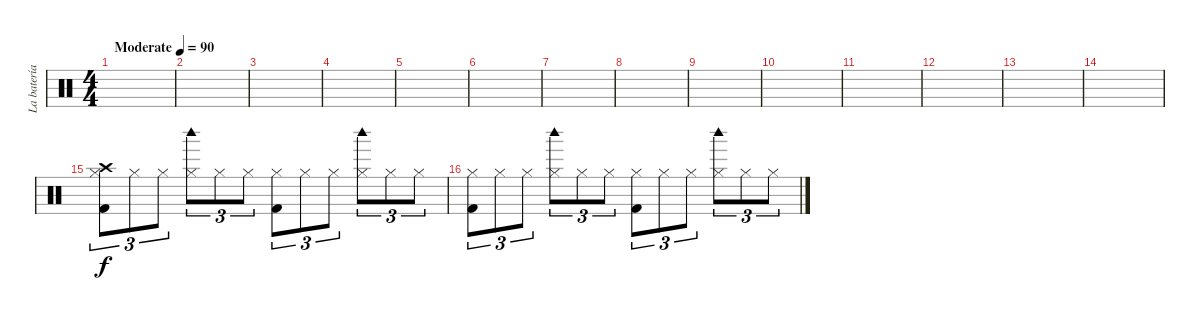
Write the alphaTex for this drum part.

\track ("La batería (con dos huevos xD)" "La batería") {instrument percussion}
\staff {score}
\articulation defaults
\ts (4 4)
\tempo (90 "Moderate")
\clef neutral
\ks c
|
|
|
|
|
|
|
|
|
|
|
|
|
|
("Crash high (hit)" "Hi-Hat (closed)" "Kick (hit) 2").8{tu (3 2)} "Hi-Hat (closed)".8{tu (3 2)} "Hi-Hat (closed)".8{tu (3 2)} ("Hi-Hat (closed)" "Woodblock high (hit)").8{tu (3 2)} "Hi-Hat (closed)".8{tu (3 2)} "Hi-Hat (closed)".8{tu (3 2)} ("Hi-Hat (closed)" "Kick (hit) 2").8{tu (3 2)} "Hi-Hat (closed)".8{tu (3 2)} "Hi-Hat (closed)".8{tu (3 2)} ("Hi-Hat (closed)" "Woodblock high (hit)").8{tu (3 2)} "Hi-Hat (closed)".8{tu (3 2)} "Hi-Hat (closed)".8{tu (3 2)} |
("Hi-Hat (closed)" "Kick (hit) 2").8{tu (3 2)} "Hi-Hat (closed)".8{tu (3 2)} "Hi-Hat (closed)".8{tu (3 2)} ("Hi-Hat (closed)" "Woodblock high (hit)").8{tu (3 2)} "Hi-Hat (closed)".8{tu (3 2)} "Hi-Hat (closed)".8{tu (3 2)} ("Hi-Hat (closed)" "Kick (hit) 2").8{tu (3 2)} "Hi-Hat (closed)".8{tu (3 2)} "Hi-Hat (closed)".8{tu (3 2)} ("Hi-Hat (closed)" "Woodblock high (hit)").8{tu (3 2)} "Hi-Hat (closed)".8{tu (3 2)} "Hi-Hat (closed)".8{tu (3 2)}
